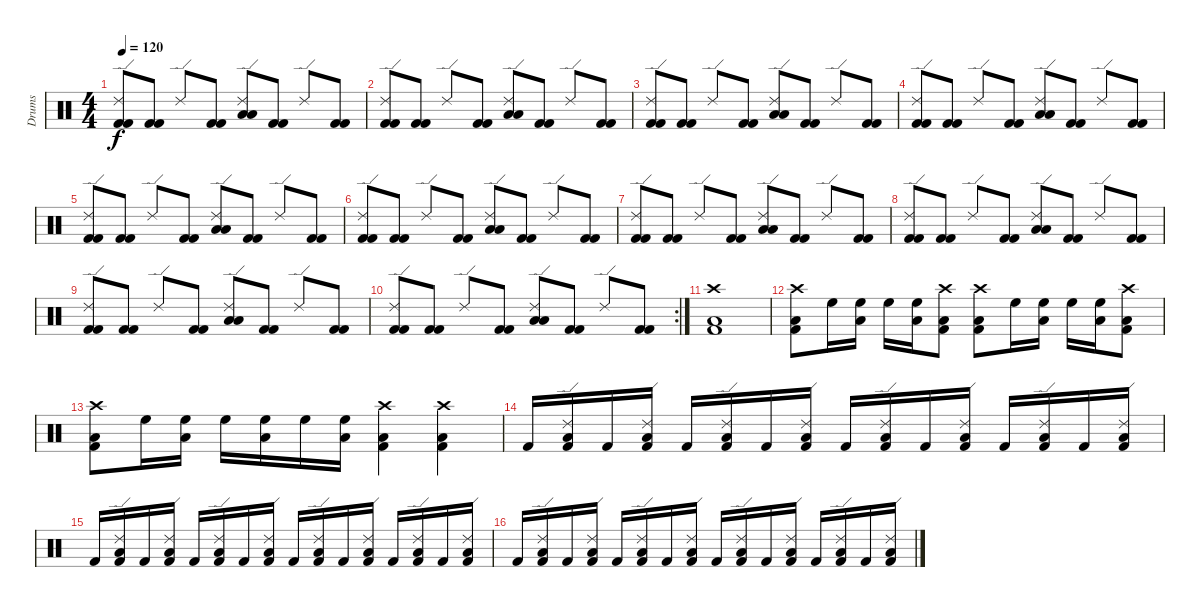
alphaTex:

\track ("Drums" "Drums") {instrument percussion}
\staff {score}
\articulation defaults
\ts (4 4)
\tempo 120
\clef neutral
\ks c
("Ride (edge) 2" "Kick (hit) 2" "Kick (hit) 2").8{dy f} ("Kick (hit) 2" "Kick (hit) 2").8 "Ride (edge) 2".8 ("Kick (hit) 2" "Kick (hit) 2").8 ("Ride (edge) 2" "Low Floor Tom (hit)" "Low Tom (hit)").8 ("Kick (hit) 2" "Kick (hit) 2").8 "Ride (edge) 2".8 ("Kick (hit) 2" "Kick (hit) 2").8 |
("Ride (edge) 2" "Kick (hit) 2" "Kick (hit) 2").8 ("Kick (hit) 2" "Kick (hit) 2").8 "Ride (edge) 2".8 ("Kick (hit) 2" "Kick (hit) 2").8 ("Ride (edge) 2" "Low Floor Tom (hit)" "Low Tom (hit)").8 ("Kick (hit) 2" "Kick (hit) 2").8 "Ride (edge) 2".8 ("Kick (hit) 2" "Kick (hit) 2").8 |
("Ride (edge) 2" "Kick (hit) 2" "Kick (hit) 2").8 ("Kick (hit) 2" "Kick (hit) 2").8 "Ride (edge) 2".8 ("Kick (hit) 2" "Kick (hit) 2").8 ("Ride (edge) 2" "Low Floor Tom (hit)" "Low Tom (hit)").8 ("Kick (hit) 2" "Kick (hit) 2").8 "Ride (edge) 2".8 ("Kick (hit) 2" "Kick (hit) 2").8 |
("Ride (edge) 2" "Kick (hit) 2" "Kick (hit) 2").8 ("Kick (hit) 2" "Kick (hit) 2").8 "Ride (edge) 2".8 ("Kick (hit) 2" "Kick (hit) 2").8 ("Ride (edge) 2" "Low Floor Tom (hit)" "Low Tom (hit)").8 ("Kick (hit) 2" "Kick (hit) 2").8 "Ride (edge) 2".8 ("Kick (hit) 2" "Kick (hit) 2").8 |
("Ride (edge) 2" "Kick (hit) 2" "Kick (hit) 2").8 ("Kick (hit) 2" "Kick (hit) 2").8 "Ride (edge) 2".8 ("Kick (hit) 2" "Kick (hit) 2").8 ("Ride (edge) 2" "Low Floor Tom (hit)" "Low Tom (hit)").8 ("Kick (hit) 2" "Kick (hit) 2").8 "Ride (edge) 2".8 ("Kick (hit) 2" "Kick (hit) 2").8 |
("Ride (edge) 2" "Kick (hit) 2" "Kick (hit) 2").8 ("Kick (hit) 2" "Kick (hit) 2").8 "Ride (edge) 2".8 ("Kick (hit) 2" "Kick (hit) 2").8 ("Ride (edge) 2" "Low Floor Tom (hit)" "Low Tom (hit)").8 ("Kick (hit) 2" "Kick (hit) 2").8 "Ride (edge) 2".8 ("Kick (hit) 2" "Kick (hit) 2").8 |
("Ride (edge) 2" "Kick (hit) 2" "Kick (hit) 2").8 ("Kick (hit) 2" "Kick (hit) 2").8 "Ride (edge) 2".8 ("Kick (hit) 2" "Kick (hit) 2").8 ("Ride (edge) 2" "Low Floor Tom (hit)" "Low Tom (hit)").8 ("Kick (hit) 2" "Kick (hit) 2").8 "Ride (edge) 2".8 ("Kick (hit) 2" "Kick (hit) 2").8 |
("Ride (edge) 2" "Kick (hit) 2" "Kick (hit) 2").8 ("Kick (hit) 2" "Kick (hit) 2").8 "Ride (edge) 2".8 ("Kick (hit) 2" "Kick (hit) 2").8 ("Ride (edge) 2" "Low Floor Tom (hit)" "Low Tom (hit)").8 ("Kick (hit) 2" "Kick (hit) 2").8 "Ride (edge) 2".8 ("Kick (hit) 2" "Kick (hit) 2").8 |
("Ride (edge) 2" "Kick (hit) 2" "Kick (hit) 2").8 ("Kick (hit) 2" "Kick (hit) 2").8 "Ride (edge) 2".8 ("Kick (hit) 2" "Kick (hit) 2").8 ("Ride (edge) 2" "Low Floor Tom (hit)" "Low Tom (hit)").8 ("Kick (hit) 2" "Kick (hit) 2").8 "Ride (edge) 2".8 ("Kick (hit) 2" "Kick (hit) 2").8 |
\rc 2
("Ride (edge) 2" "Kick (hit) 2" "Kick (hit) 2").8 ("Kick (hit) 2" "Kick (hit) 2").8 "Ride (edge) 2".8 ("Kick (hit) 2" "Kick (hit) 2").8 ("Ride (edge) 2" "Low Floor Tom (hit)" "Low Tom (hit)").8 ("Kick (hit) 2" "Kick (hit) 2").8 "Ride (edge) 2".8 ("Kick (hit) 2" "Kick (hit) 2").8 |
("Crash high (hit)" "Low Tom (hit)" "Kick (hit) 2").1 |
("Crash high (hit)" "Low Floor Tom (hit)" "Kick (hit) 2").8 "High Floor Tom (hit)".16 ("Low Floor Tom (hit)" "High Floor Tom (hit)").16 "High Floor Tom (hit)".16 ("Low Floor Tom (hit)" "High Floor Tom (hit)").16 ("Crash high (hit)" "Low Tom (hit)" "Kick (hit) 2").8 ("Crash high (hit)" "Low Tom (hit)" "Kick (hit) 2").8 "High Floor Tom (hit)".16 ("Low Floor Tom (hit)" "High Floor Tom (hit)").16 "High Floor Tom (hit)".16 ("Low Floor Tom (hit)" "High Floor Tom (hit)").16 ("Crash high (hit)" "Low Tom (hit)" "Kick (hit) 2").8 |
("Crash high (hit)" "Low Tom (hit)" "Kick (hit) 2").8 "High Floor Tom (hit)".16 ("Low Floor Tom (hit)" "High Floor Tom (hit)").16 "High Floor Tom (hit)".16 ("Low Floor Tom (hit)" "High Floor Tom (hit)").16 "High Floor Tom (hit)".16 ("Low Floor Tom (hit)" "High Floor Tom (hit)").16 ("Crash high (hit)" "Low Tom (hit)" "Kick (hit) 2").4 ("Crash high (hit)" "Low Tom (hit)" "Kick (hit) 2").4 |
"Kick (hit) 2".16 ("Ride (edge) 2" "Low Tom (hit)" "Kick (hit) 2").16 "Kick (hit) 2".16 ("Ride (edge) 2" "Low Tom (hit)" "Kick (hit) 2").16 "Kick (hit) 2".16 ("Ride (edge) 2" "Low Tom (hit)" "Kick (hit) 2").16 "Kick (hit) 2".16 ("Ride (edge) 2" "Low Tom (hit)" "Kick (hit) 2").16 "Kick (hit) 2".16 ("Ride (edge) 2" "Low Tom (hit)" "Kick (hit) 2").16 "Kick (hit) 2".16 ("Ride (edge) 2" "Low Tom (hit)" "Kick (hit) 2").16 "Kick (hit) 2".16 ("Ride (edge) 2" "Low Tom (hit)" "Kick (hit) 2").16 "Kick (hit) 2".16 ("Ride (edge) 2" "Low Tom (hit)" "Kick (hit) 2").16 |
"Kick (hit) 2".16 ("Ride (edge) 2" "Low Tom (hit)" "Kick (hit) 2").16 "Kick (hit) 2".16 ("Ride (edge) 2" "Low Tom (hit)" "Kick (hit) 2").16 "Kick (hit) 2".16 ("Ride (edge) 2" "Low Tom (hit)" "Kick (hit) 2").16 "Kick (hit) 2".16 ("Ride (edge) 2" "Low Tom (hit)" "Kick (hit) 2").16 "Kick (hit) 2".16 ("Ride (edge) 2" "Low Tom (hit)" "Kick (hit) 2").16 "Kick (hit) 2".16 ("Ride (edge) 2" "Low Tom (hit)" "Kick (hit) 2").16 "Kick (hit) 2".16 ("Ride (edge) 2" "Low Tom (hit)" "Kick (hit) 2").16 "Kick (hit) 2".16 ("Ride (edge) 2" "Low Tom (hit)" "Kick (hit) 2").16 |
"Kick (hit) 2".16 ("Ride (edge) 2" "Low Tom (hit)" "Kick (hit) 2").16 "Kick (hit) 2".16 ("Ride (edge) 2" "Low Tom (hit)" "Kick (hit) 2").16 "Kick (hit) 2".16 ("Ride (edge) 2" "Low Tom (hit)" "Kick (hit) 2").16 "Kick (hit) 2".16 ("Ride (edge) 2" "Low Tom (hit)" "Kick (hit) 2").16 "Kick (hit) 2".16 ("Ride (edge) 2" "Low Tom (hit)" "Kick (hit) 2").16 "Kick (hit) 2".16 ("Ride (edge) 2" "Low Tom (hit)" "Kick (hit) 2").16 "Kick (hit) 2".16 ("Ride (edge) 2" "Low Tom (hit)" "Kick (hit) 2").16 "Kick (hit) 2".16 ("Ride (edge) 2" "Low Tom (hit)" "Kick (hit) 2").16
